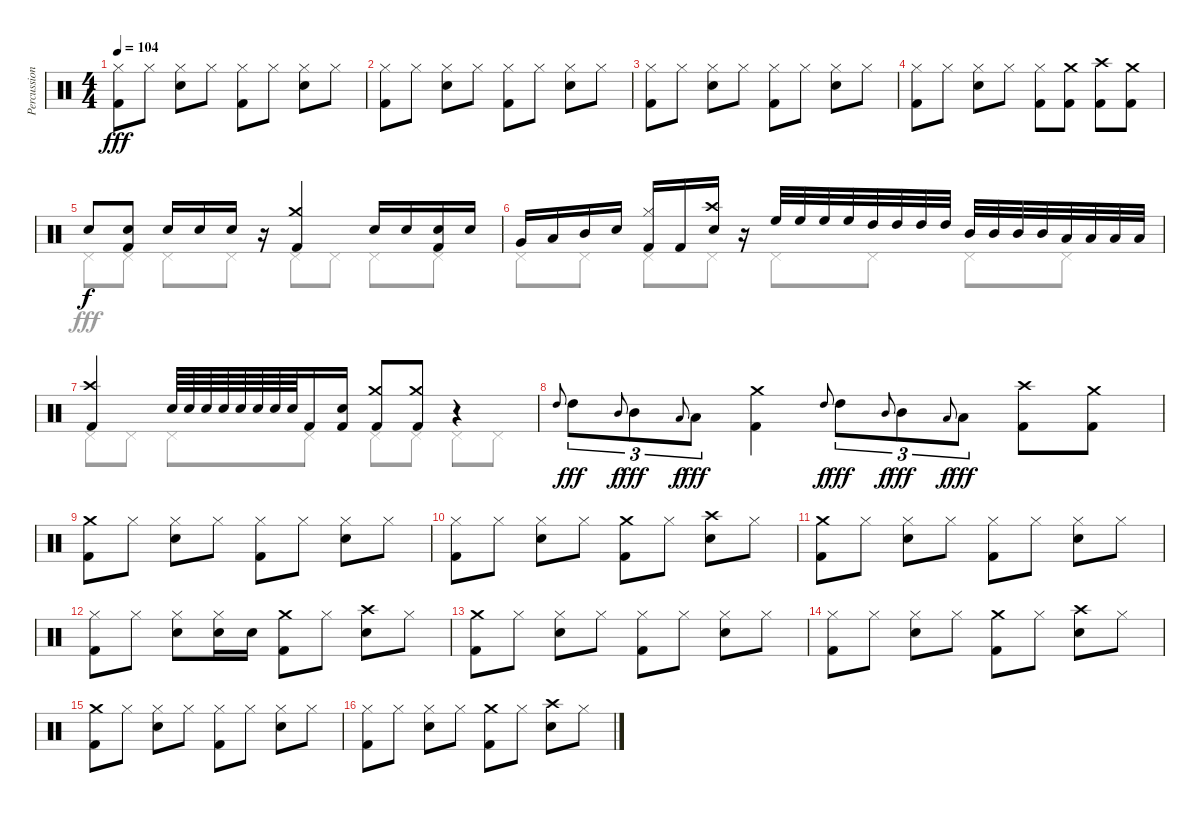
\track ("Percussions" "Percussion") {instrument percussion}
\staff {score}
\articulation defaults
\voice
\ts (4 4)
\tempo 104
\clef neutral
\ks c
("Kick (hit) 2" "Hi-Hat (closed)").8{dy fff} "Hi-Hat (closed)".8 ("Snare (hit) 2" "Hi-Hat (closed)").8 "Hi-Hat (closed)".8 ("Hi-Hat (closed)" "Kick (hit) 2").8 "Hi-Hat (closed)".8 ("Hi-Hat (closed)" "Snare (hit) 2").8 "Hi-Hat (closed)".8 |
("Kick (hit) 2" "Hi-Hat (closed)").8 "Hi-Hat (closed)".8 ("Snare (hit) 2" "Hi-Hat (closed)").8 "Hi-Hat (closed)".8 ("Hi-Hat (closed)" "Kick (hit) 2").8 "Hi-Hat (closed)".8 ("Hi-Hat (closed)" "Snare (hit) 2").8 "Hi-Hat (closed)".8 |
("Kick (hit) 2" "Hi-Hat (closed)").8 "Hi-Hat (closed)".8 ("Snare (hit) 2" "Hi-Hat (closed)").8 "Hi-Hat (closed)".8 ("Hi-Hat (closed)" "Kick (hit) 2").8 "Hi-Hat (closed)".8 ("Hi-Hat (closed)" "Snare (hit) 2").8 "Hi-Hat (closed)".8 |
("Kick (hit) 2" "Hi-Hat (closed)").8 "Hi-Hat (closed)".8 ("Snare (hit) 2" "Hi-Hat (closed)").8 "Hi-Hat (closed)".8 ("Hi-Hat (closed)" "Kick (hit) 2").8 ("Crash medium (hit)" "Kick (hit) 2").8 ("Crash high (hit)" "Kick (hit) 2").8 ("Crash medium (hit)" "Kick (hit) 2").8 |
"Snare (hit) 2".8{dy f} ("Snare (hit) 2" "Kick (hit) 2").8 "Snare (hit) 2".16 "Snare (hit) 2".16 "Snare (hit) 2".16 r.16 ("Kick (hit) 2" "Crash medium (hit)").4 "Snare (hit) 2".16 "Snare (hit) 2".16 ("Snare (hit) 2" "Kick (hit) 2").16 "Snare (hit) 2".16 |
"Very Low Tom (hit)".16 "Low Tom (hit)".16 "Mid Tom (hit)".16 "Snare (hit) 2".16 ("Kick (hit) 2" "Hi-Hat (closed)").16 "Kick (hit) 2".16 ("Snare (hit) 2" "Crash high (hit)").16 r.16 "High Floor Tom (hit)".32 "High Floor Tom (hit)".32 "High Floor Tom (hit)".32 "High Floor Tom (hit)".32 "High Tom (hit)".32 "High Tom (hit)".32 "High Tom (hit)".32 "High Tom (hit)".32 "Mid Tom (hit)".32 "Mid Tom (hit)".32 "Mid Tom (hit)".32 "Mid Tom (hit)".32 "Low Tom (hit)".32 "Low Tom (hit)".32 "Low Tom (hit)".32 "Low Tom (hit)".32 |
("Crash high (hit)" "Kick (hit) 2").4 "Snare (hit) 2".64 "Snare (hit) 2".64 "Snare (hit) 2".64 "Snare (hit) 2".64 "Snare (hit) 2".64 "Snare (hit) 2".64 "Snare (hit) 2".64 "Snare (hit) 2".64 "Kick (hit) 2".16 ("Kick (hit) 2" "Snare (hit) 2").16 ("Crash medium (hit)" "Kick (hit) 2").8 ("Crash medium (hit)" "Kick (hit) 2").8 r.4 |
"High Tom (hit)".8{gr onbeat} "High Tom (hit)".8{tu (3 2) dy fff} "Mid Tom (hit)".8{gr onbeat dy f} "Mid Tom (hit)".8{tu (3 2) dy fff} "Low Tom (hit)".8{gr onbeat dy f} "Low Tom (hit)".8{tu (3 2) dy fff} ("Crash medium (hit)" "Kick (hit) 2").4 "High Tom (hit)".8{gr onbeat dy f} "High Tom (hit)".8{tu (3 2) dy fff} "Mid Tom (hit)".8{gr onbeat dy f} "Mid Tom (hit)".8{tu (3 2) dy fff} "Low Tom (hit)".8{gr onbeat dy f} "Low Tom (hit)".8{tu (3 2) dy fff} ("Crash high (hit)" "Kick (hit) 2").8 ("Kick (hit) 2" "Crash medium (hit)").8 |
("Kick (hit) 2" "Crash medium (hit)").8 "Hi-Hat (closed)".8 ("Snare (hit) 2" "Hi-Hat (closed)").8 "Hi-Hat (closed)".8 ("Hi-Hat (closed)" "Kick (hit) 2").8 "Hi-Hat (closed)".8 ("Hi-Hat (closed)" "Snare (hit) 2").8 "Hi-Hat (closed)".8 |
("Kick (hit) 2" "Hi-Hat (closed)").8 "Hi-Hat (closed)".8 ("Snare (hit) 2" "Hi-Hat (closed)").8 "Hi-Hat (closed)".8 ("Crash medium (hit)" "Kick (hit) 2").8 "Hi-Hat (closed)".8 ("Crash high (hit)" "Snare (hit) 2").8 "Hi-Hat (closed)".8 |
("Kick (hit) 2" "Crash medium (hit)").8 "Hi-Hat (closed)".8 ("Snare (hit) 2" "Hi-Hat (closed)").8 "Hi-Hat (closed)".8 ("Hi-Hat (closed)" "Kick (hit) 2").8 "Hi-Hat (closed)".8 ("Hi-Hat (closed)" "Snare (hit) 2").8 "Hi-Hat (closed)".8 |
("Kick (hit) 2" "Hi-Hat (closed)").8 "Hi-Hat (closed)".8 ("Snare (hit) 2" "Hi-Hat (closed)").8 ("Hi-Hat (closed)" "Snare (hit) 2").16 "Snare (hit) 2".16 ("Crash medium (hit)" "Kick (hit) 2").8 "Hi-Hat (closed)".8 ("Crash high (hit)" "Snare (hit) 2").8 "Hi-Hat (closed)".8 |
("Kick (hit) 2" "Crash medium (hit)").8 "Hi-Hat (closed)".8 ("Snare (hit) 2" "Hi-Hat (closed)").8 "Hi-Hat (closed)".8 ("Hi-Hat (closed)" "Kick (hit) 2").8 "Hi-Hat (closed)".8 ("Hi-Hat (closed)" "Snare (hit) 2").8 "Hi-Hat (closed)".8 |
("Kick (hit) 2" "Hi-Hat (closed)").8 "Hi-Hat (closed)".8 ("Snare (hit) 2" "Hi-Hat (closed)").8 "Hi-Hat (closed)".8 ("Crash medium (hit)" "Kick (hit) 2").8 "Hi-Hat (closed)".8 ("Crash high (hit)" "Snare (hit) 2").8 "Hi-Hat (closed)".8 |
("Kick (hit) 2" "Crash medium (hit)").8 "Hi-Hat (closed)".8 ("Snare (hit) 2" "Hi-Hat (closed)").8 "Hi-Hat (closed)".8 ("Hi-Hat (closed)" "Kick (hit) 2").8 "Hi-Hat (closed)".8 ("Hi-Hat (closed)" "Snare (hit) 2").8 "Hi-Hat (closed)".8 |
("Kick (hit) 2" "Hi-Hat (closed)").8 "Hi-Hat (closed)".8 ("Snare (hit) 2" "Hi-Hat (closed)").8 "Hi-Hat (closed)".8 ("Crash medium (hit)" "Kick (hit) 2").8 "Hi-Hat (closed)".8 ("Crash high (hit)" "Snare (hit) 2").8 "Hi-Hat (closed)".8
\voice
\clef neutral
\ottava regular
\simile none
\ks c
|
|
|
|
"Pedal Hi-Hat (hit)".8 "Pedal Hi-Hat (hit)".8 "Pedal Hi-Hat (hit)".8 "Pedal Hi-Hat (hit)".8 "Pedal Hi-Hat (hit)".8 "Pedal Hi-Hat (hit)".8 "Pedal Hi-Hat (hit)".8 "Pedal Hi-Hat (hit)".8 |
"Pedal Hi-Hat (hit)".8 "Pedal Hi-Hat (hit)".8 "Pedal Hi-Hat (hit)".8 "Pedal Hi-Hat (hit)".8 "Pedal Hi-Hat (hit)".8 "Pedal Hi-Hat (hit)".8 "Pedal Hi-Hat (hit)".8 "Pedal Hi-Hat (hit)".8 |
"Pedal Hi-Hat (hit)".8 "Pedal Hi-Hat (hit)".8 "Pedal Hi-Hat (hit)".8 "Pedal Hi-Hat (hit)".8 "Pedal Hi-Hat (hit)".8 "Pedal Hi-Hat (hit)".8 "Pedal Hi-Hat (hit)".8 "Pedal Hi-Hat (hit)".8 |
|
|
|
|
|
|
|
|
